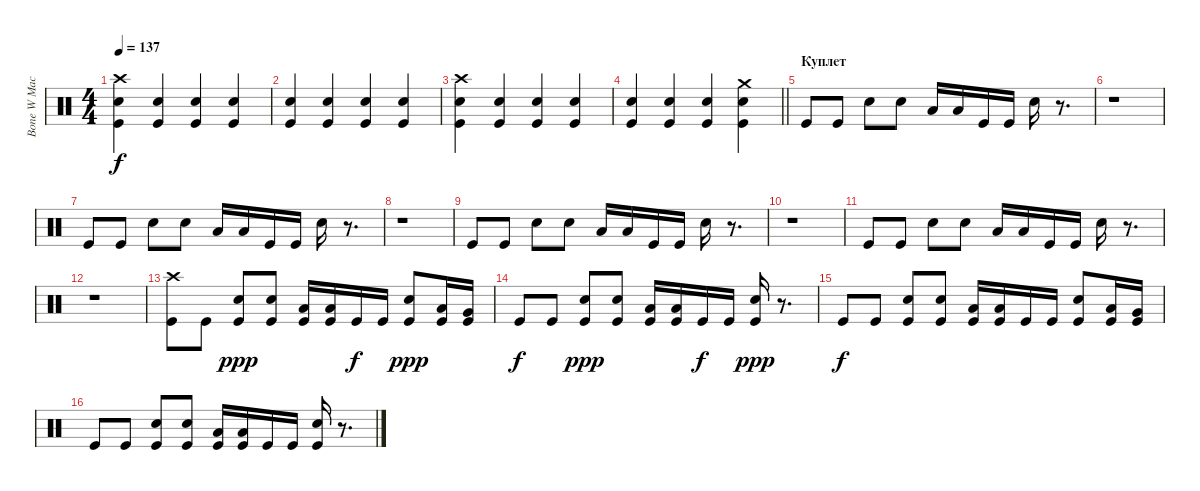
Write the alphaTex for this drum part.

\track ("Bone W Machine Drums" "Bone W Mac") {instrument percussion}
\staff {score}
\articulation defaults
\ts (4 4)
\tempo 137
\clef neutral
\ks c
("Crash high (hit)" "Snare (hit) 2" "Kick (hit)").4{dy f} ("Snare (hit) 2" "Kick (hit)").4 ("Snare (hit) 2" "Kick (hit)").4 ("Snare (hit) 2" "Kick (hit)").4 |
("Snare (hit) 2" "Kick (hit)").4 ("Snare (hit) 2" "Kick (hit)").4 ("Snare (hit) 2" "Kick (hit)").4 ("Snare (hit) 2" "Kick (hit)").4 |
("Crash high (hit)" "Snare (hit) 2" "Kick (hit)").4 ("Snare (hit) 2" "Kick (hit)").4 ("Snare (hit) 2" "Kick (hit)").4 ("Snare (hit) 2" "Kick (hit)").4 |
\barLineRight lightlight
("Snare (hit) 2" "Kick (hit)").4 ("Snare (hit) 2" "Kick (hit)").4 ("Snare (hit) 2" "Kick (hit)").4 ("Crash medium (hit)" "Snare (hit) 2" "Kick (hit)").4 |
\section ("" "Куплет")
"Kick (hit)".8 "Kick (hit)".8 "Snare (hit) 2".8 "Snare (hit) 2".8 "Low Tom (hit)".16 "Low Tom (hit)".16 "Kick (hit)".16 "Kick (hit)".16 "Snare (hit) 2".16 r.8{d} |
r.1 |
"Kick (hit)".8 "Kick (hit)".8 "Snare (hit) 2".8 "Snare (hit) 2".8 "Low Tom (hit)".16 "Low Tom (hit)".16 "Kick (hit)".16 "Kick (hit)".16 "Snare (hit) 2".16 r.8{d} |
r.1 |
"Kick (hit)".8 "Kick (hit)".8 "Snare (hit) 2".8 "Snare (hit) 2".8 "Low Tom (hit)".16 "Low Tom (hit)".16 "Kick (hit)".16 "Kick (hit)".16 "Snare (hit) 2".16 r.8{d} |
r.1 |
"Kick (hit)".8 "Kick (hit)".8 "Snare (hit) 2".8 "Snare (hit) 2".8 "Low Tom (hit)".16 "Low Tom (hit)".16 "Kick (hit)".16 "Kick (hit)".16 "Snare (hit) 2".16 r.8{d} |
r.1 |
("Crash high (hit)" "Kick (hit)").8 "Kick (hit)".8 ("Snare (hit) 2" "Kick (hit)").8{dy ppp} ("Snare (hit) 2" "Kick (hit)").8 ("Low Tom (hit)" "Kick (hit)").16 ("Low Tom (hit)" "Kick (hit)").16 "Kick (hit)".16{dy f} "Kick (hit)".16 ("Snare (hit) 2" "Kick (hit)").8{dy ppp} ("Low Tom (hit)" "Kick (hit)").16 ("Very Low Tom (hit)" "Kick (hit)").16 |
"Kick (hit)".8{dy f} "Kick (hit)".8 ("Snare (hit) 2" "Kick (hit)").8{dy ppp} ("Snare (hit) 2" "Kick (hit)").8 ("Low Tom (hit)" "Kick (hit)").16 ("Low Tom (hit)" "Kick (hit)").16 "Kick (hit)".16{dy f} "Kick (hit)".16 ("Snare (hit) 2" "Kick (hit)").16{dy ppp} r.8{d} |
"Kick (hit)".8{dy f} "Kick (hit)".8 ("Snare (hit) 2" "Kick (hit)").8 ("Snare (hit) 2" "Kick (hit)").8 ("Low Tom (hit)" "Kick (hit)").16 ("Low Tom (hit)" "Kick (hit)").16 "Kick (hit)".16 "Kick (hit)".16 ("Snare (hit) 2" "Kick (hit)").8 ("Low Tom (hit)" "Kick (hit)").16 ("Very Low Tom (hit)" "Kick (hit)").16 |
"Kick (hit)".8 "Kick (hit)".8 ("Snare (hit) 2" "Kick (hit)").8 ("Snare (hit) 2" "Kick (hit)").8 ("Low Tom (hit)" "Kick (hit)").16 ("Low Tom (hit)" "Kick (hit)").16 "Kick (hit)".16 "Kick (hit)".16 ("Snare (hit) 2" "Kick (hit)").16 r.8{d}
